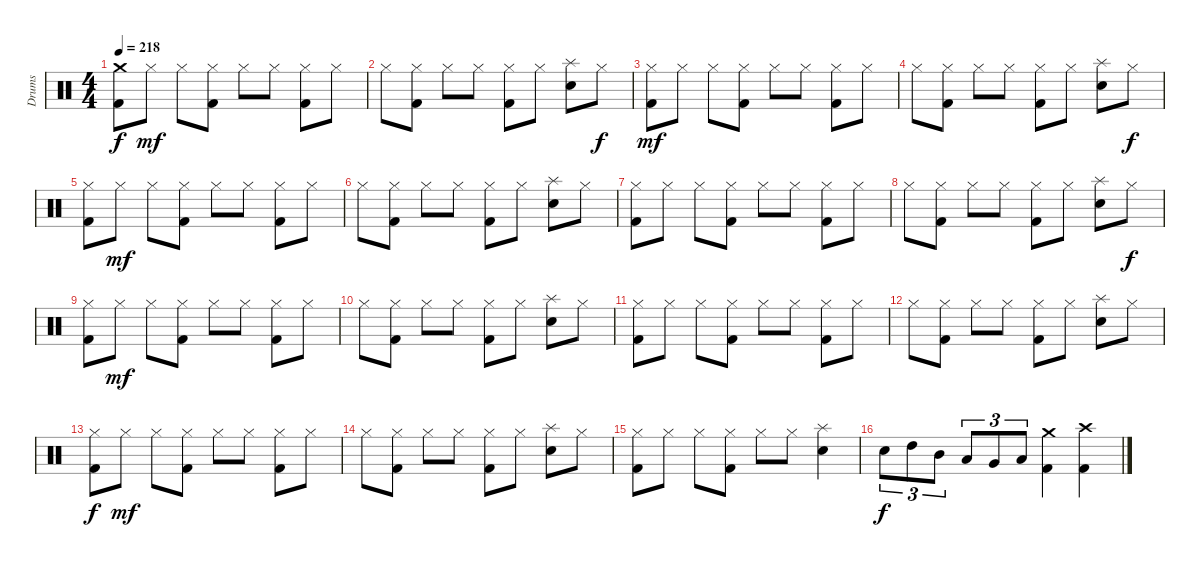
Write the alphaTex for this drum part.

\track ("Drums" "Drums") {instrument percussion}
\staff {score}
\articulation defaults
\ts (4 4)
\tempo 218
\clef neutral
\ks c
("Crash medium (hit)" "Kick (hit) 2").8{dy f} "Hi-Hat (closed)".8{dy mf} "Hi-Hat (closed)".8 ("Hi-Hat (closed)" "Kick (hit) 2").8 "Hi-Hat (closed)".8 "Hi-Hat (closed)".8 ("Hi-Hat (closed)" "Kick (hit) 2").8 "Hi-Hat (closed)".8 |
"Hi-Hat (closed)".8 ("Hi-Hat (closed)" "Kick (hit) 2").8 "Hi-Hat (closed)".8 "Hi-Hat (closed)".8 ("Hi-Hat (closed)" "Kick (hit) 2").8 "Hi-Hat (closed)".8 ("Splash (hit)" "Snare (hit) 2").8 "Hi-Hat (closed)".8{dy f} |
("Hi-Hat (closed)" "Kick (hit) 2").8{dy mf} "Hi-Hat (closed)".8 "Hi-Hat (closed)".8 ("Hi-Hat (closed)" "Kick (hit) 2").8 "Hi-Hat (closed)".8 "Hi-Hat (closed)".8 ("Hi-Hat (closed)" "Kick (hit) 2").8 "Hi-Hat (closed)".8 |
"Hi-Hat (closed)".8 ("Hi-Hat (closed)" "Kick (hit) 2").8 "Hi-Hat (closed)".8 "Hi-Hat (closed)".8 ("Hi-Hat (closed)" "Kick (hit) 2").8 "Hi-Hat (closed)".8 ("Splash (hit)" "Snare (hit) 2").8 "Hi-Hat (closed)".8{dy f} |
("Hi-Hat (closed)" "Kick (hit) 2").8 "Hi-Hat (closed)".8{dy mf} "Hi-Hat (closed)".8 ("Hi-Hat (closed)" "Kick (hit) 2").8 "Hi-Hat (closed)".8 "Hi-Hat (closed)".8 ("Hi-Hat (closed)" "Kick (hit) 2").8 "Hi-Hat (closed)".8 |
"Hi-Hat (closed)".8 ("Hi-Hat (closed)" "Kick (hit) 2").8 "Hi-Hat (closed)".8 "Hi-Hat (closed)".8 ("Hi-Hat (closed)" "Kick (hit) 2").8 "Hi-Hat (closed)".8 ("Splash (hit)" "Snare (hit) 2").8 "Hi-Hat (closed)".8 |
("Hi-Hat (closed)" "Kick (hit) 2").8 "Hi-Hat (closed)".8 "Hi-Hat (closed)".8 ("Hi-Hat (closed)" "Kick (hit) 2").8 "Hi-Hat (closed)".8 "Hi-Hat (closed)".8 ("Hi-Hat (closed)" "Kick (hit) 2").8 "Hi-Hat (closed)".8 |
"Hi-Hat (closed)".8 ("Hi-Hat (closed)" "Kick (hit) 2").8 "Hi-Hat (closed)".8 "Hi-Hat (closed)".8 ("Hi-Hat (closed)" "Kick (hit) 2").8 "Hi-Hat (closed)".8 ("Splash (hit)" "Snare (hit) 2").8 "Hi-Hat (closed)".8{dy f} |
("Hi-Hat (closed)" "Kick (hit) 2").8 "Hi-Hat (closed)".8{dy mf} "Hi-Hat (closed)".8 ("Hi-Hat (closed)" "Kick (hit) 2").8 "Hi-Hat (closed)".8 "Hi-Hat (closed)".8 ("Hi-Hat (closed)" "Kick (hit) 2").8 "Hi-Hat (closed)".8 |
"Hi-Hat (closed)".8 ("Hi-Hat (closed)" "Kick (hit) 2").8 "Hi-Hat (closed)".8 "Hi-Hat (closed)".8 ("Hi-Hat (closed)" "Kick (hit) 2").8 "Hi-Hat (closed)".8 ("Splash (hit)" "Snare (hit) 2").8 "Hi-Hat (closed)".8 |
("Hi-Hat (closed)" "Kick (hit) 2").8 "Hi-Hat (closed)".8 "Hi-Hat (closed)".8 ("Hi-Hat (closed)" "Kick (hit) 2").8 "Hi-Hat (closed)".8 "Hi-Hat (closed)".8 ("Hi-Hat (closed)" "Kick (hit) 2").8 "Hi-Hat (closed)".8 |
"Hi-Hat (closed)".8 ("Hi-Hat (closed)" "Kick (hit) 2").8 "Hi-Hat (closed)".8 "Hi-Hat (closed)".8 ("Hi-Hat (closed)" "Kick (hit) 2").8 "Hi-Hat (closed)".8 ("Splash (hit)" "Snare (hit) 2").8 "Hi-Hat (closed)".8 |
("Hi-Hat (closed)" "Kick (hit) 2").8{dy f} "Hi-Hat (closed)".8{dy mf} "Hi-Hat (closed)".8 ("Hi-Hat (closed)" "Kick (hit) 2").8 "Hi-Hat (closed)".8 "Hi-Hat (closed)".8 ("Hi-Hat (closed)" "Kick (hit) 2").8 "Hi-Hat (closed)".8 |
"Hi-Hat (closed)".8 ("Hi-Hat (closed)" "Kick (hit) 2").8 "Hi-Hat (closed)".8 "Hi-Hat (closed)".8 ("Hi-Hat (closed)" "Kick (hit) 2").8 "Hi-Hat (closed)".8 ("Splash (hit)" "Snare (hit) 2").8 "Hi-Hat (closed)".8 |
("Hi-Hat (closed)" "Kick (hit) 2").8 "Hi-Hat (closed)".8 "Hi-Hat (closed)".8 ("Hi-Hat (closed)" "Kick (hit) 2").8 "Hi-Hat (closed)".8 "Hi-Hat (closed)".8 ("Splash (hit)" "Snare (hit) 2").4 |
"Snare (hit) 2".8{tu (3 2) dy f} "High Tom (hit)".8{tu (3 2)} "Mid Tom (hit)".8{tu (3 2)} "Low Tom (hit)".8{tu (3 2)} "Very Low Tom (hit)".8{tu (3 2)} "Low Floor Tom (hit)".8{tu (3 2)} ("Crash medium (hit)" "Kick (hit) 2").4 ("Crash high (hit)" "Kick (hit) 2").4
